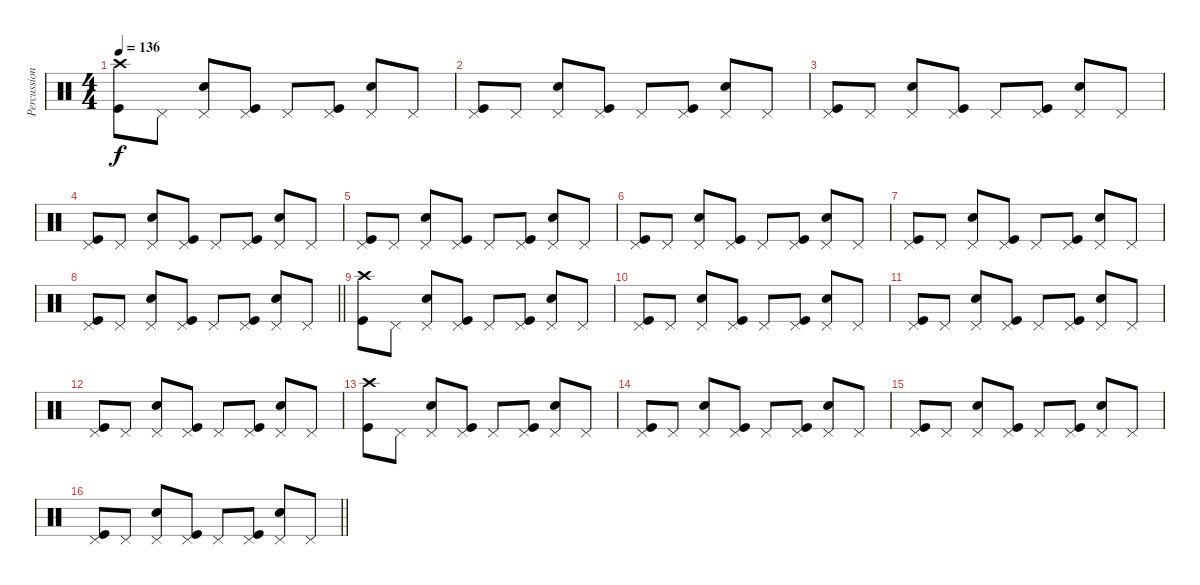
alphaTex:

\track ("Percussion" "Percussion") {instrument percussion}
\staff {score}
\articulation defaults
\ts (4 4)
\tempo 136
\clef neutral
\ks c
("Crash high (hit)" "Kick (hit)").8{dy f} "Pedal Hi-Hat (hit)".8 ("Pedal Hi-Hat (hit)" "Snare (hit) 2").8 ("Pedal Hi-Hat (hit)" "Kick (hit)").8 "Pedal Hi-Hat (hit)".8 ("Pedal Hi-Hat (hit)" "Kick (hit)").8 ("Pedal Hi-Hat (hit)" "Snare (hit) 2").8 "Pedal Hi-Hat (hit)".8 |
("Pedal Hi-Hat (hit)" "Kick (hit)").8 "Pedal Hi-Hat (hit)".8 ("Pedal Hi-Hat (hit)" "Snare (hit) 2").8 ("Pedal Hi-Hat (hit)" "Kick (hit)").8 "Pedal Hi-Hat (hit)".8 ("Pedal Hi-Hat (hit)" "Kick (hit)").8 ("Pedal Hi-Hat (hit)" "Snare (hit) 2").8 "Pedal Hi-Hat (hit)".8 |
("Pedal Hi-Hat (hit)" "Kick (hit)").8 "Pedal Hi-Hat (hit)".8 ("Pedal Hi-Hat (hit)" "Snare (hit) 2").8 ("Pedal Hi-Hat (hit)" "Kick (hit)").8 "Pedal Hi-Hat (hit)".8 ("Pedal Hi-Hat (hit)" "Kick (hit)").8 ("Pedal Hi-Hat (hit)" "Snare (hit) 2").8 "Pedal Hi-Hat (hit)".8 |
("Pedal Hi-Hat (hit)" "Kick (hit)").8 "Pedal Hi-Hat (hit)".8 ("Pedal Hi-Hat (hit)" "Snare (hit) 2").8 ("Pedal Hi-Hat (hit)" "Kick (hit)").8 "Pedal Hi-Hat (hit)".8 ("Pedal Hi-Hat (hit)" "Kick (hit)").8 ("Pedal Hi-Hat (hit)" "Snare (hit) 2").8 "Pedal Hi-Hat (hit)".8 |
("Pedal Hi-Hat (hit)" "Kick (hit)").8 "Pedal Hi-Hat (hit)".8 ("Pedal Hi-Hat (hit)" "Snare (hit) 2").8 ("Pedal Hi-Hat (hit)" "Kick (hit)").8 "Pedal Hi-Hat (hit)".8 ("Pedal Hi-Hat (hit)" "Kick (hit)").8 ("Pedal Hi-Hat (hit)" "Snare (hit) 2").8 "Pedal Hi-Hat (hit)".8 |
("Pedal Hi-Hat (hit)" "Kick (hit)").8 "Pedal Hi-Hat (hit)".8 ("Pedal Hi-Hat (hit)" "Snare (hit) 2").8 ("Pedal Hi-Hat (hit)" "Kick (hit)").8 "Pedal Hi-Hat (hit)".8 ("Pedal Hi-Hat (hit)" "Kick (hit)").8 ("Pedal Hi-Hat (hit)" "Snare (hit) 2").8 "Pedal Hi-Hat (hit)".8 |
("Pedal Hi-Hat (hit)" "Kick (hit)").8 "Pedal Hi-Hat (hit)".8 ("Pedal Hi-Hat (hit)" "Snare (hit) 2").8 ("Pedal Hi-Hat (hit)" "Kick (hit)").8 "Pedal Hi-Hat (hit)".8 ("Pedal Hi-Hat (hit)" "Kick (hit)").8 ("Pedal Hi-Hat (hit)" "Snare (hit) 2").8 "Pedal Hi-Hat (hit)".8 |
\barLineRight lightlight
("Pedal Hi-Hat (hit)" "Kick (hit)").8 "Pedal Hi-Hat (hit)".8 ("Pedal Hi-Hat (hit)" "Snare (hit) 2").8 ("Pedal Hi-Hat (hit)" "Kick (hit)").8 "Pedal Hi-Hat (hit)".8 ("Pedal Hi-Hat (hit)" "Kick (hit)").8 ("Pedal Hi-Hat (hit)" "Snare (hit) 2").8 "Pedal Hi-Hat (hit)".8 |
("Crash high (hit)" "Kick (hit)").8 "Pedal Hi-Hat (hit)".8 ("Pedal Hi-Hat (hit)" "Snare (hit) 2").8 ("Pedal Hi-Hat (hit)" "Kick (hit)").8 "Pedal Hi-Hat (hit)".8 ("Pedal Hi-Hat (hit)" "Kick (hit)").8 ("Pedal Hi-Hat (hit)" "Snare (hit) 2").8 "Pedal Hi-Hat (hit)".8 |
("Pedal Hi-Hat (hit)" "Kick (hit)").8 "Pedal Hi-Hat (hit)".8 ("Pedal Hi-Hat (hit)" "Snare (hit) 2").8 ("Pedal Hi-Hat (hit)" "Kick (hit)").8 "Pedal Hi-Hat (hit)".8 ("Pedal Hi-Hat (hit)" "Kick (hit)").8 ("Pedal Hi-Hat (hit)" "Snare (hit) 2").8 "Pedal Hi-Hat (hit)".8 |
("Pedal Hi-Hat (hit)" "Kick (hit)").8 "Pedal Hi-Hat (hit)".8 ("Pedal Hi-Hat (hit)" "Snare (hit) 2").8 ("Pedal Hi-Hat (hit)" "Kick (hit)").8 "Pedal Hi-Hat (hit)".8 ("Pedal Hi-Hat (hit)" "Kick (hit)").8 ("Pedal Hi-Hat (hit)" "Snare (hit) 2").8 "Pedal Hi-Hat (hit)".8 |
("Pedal Hi-Hat (hit)" "Kick (hit)").8 "Pedal Hi-Hat (hit)".8 ("Pedal Hi-Hat (hit)" "Snare (hit) 2").8 ("Pedal Hi-Hat (hit)" "Kick (hit)").8 "Pedal Hi-Hat (hit)".8 ("Pedal Hi-Hat (hit)" "Kick (hit)").8 ("Pedal Hi-Hat (hit)" "Snare (hit) 2").8 "Pedal Hi-Hat (hit)".8 |
("Crash high (hit)" "Kick (hit)").8 "Pedal Hi-Hat (hit)".8 ("Pedal Hi-Hat (hit)" "Snare (hit) 2").8 ("Pedal Hi-Hat (hit)" "Kick (hit)").8 "Pedal Hi-Hat (hit)".8 ("Pedal Hi-Hat (hit)" "Kick (hit)").8 ("Pedal Hi-Hat (hit)" "Snare (hit) 2").8 "Pedal Hi-Hat (hit)".8 |
("Pedal Hi-Hat (hit)" "Kick (hit)").8 "Pedal Hi-Hat (hit)".8 ("Pedal Hi-Hat (hit)" "Snare (hit) 2").8 ("Pedal Hi-Hat (hit)" "Kick (hit)").8 "Pedal Hi-Hat (hit)".8 ("Pedal Hi-Hat (hit)" "Kick (hit)").8 ("Pedal Hi-Hat (hit)" "Snare (hit) 2").8 "Pedal Hi-Hat (hit)".8 |
("Pedal Hi-Hat (hit)" "Kick (hit)").8 "Pedal Hi-Hat (hit)".8 ("Pedal Hi-Hat (hit)" "Snare (hit) 2").8 ("Pedal Hi-Hat (hit)" "Kick (hit)").8 "Pedal Hi-Hat (hit)".8 ("Pedal Hi-Hat (hit)" "Kick (hit)").8 ("Pedal Hi-Hat (hit)" "Snare (hit) 2").8 "Pedal Hi-Hat (hit)".8 |
\barLineRight lightlight
("Pedal Hi-Hat (hit)" "Kick (hit)").8 "Pedal Hi-Hat (hit)".8 ("Pedal Hi-Hat (hit)" "Snare (hit) 2").8 ("Pedal Hi-Hat (hit)" "Kick (hit)").8 "Pedal Hi-Hat (hit)".8 ("Pedal Hi-Hat (hit)" "Kick (hit)").8 ("Pedal Hi-Hat (hit)" "Snare (hit) 2").8 "Pedal Hi-Hat (hit)".8
